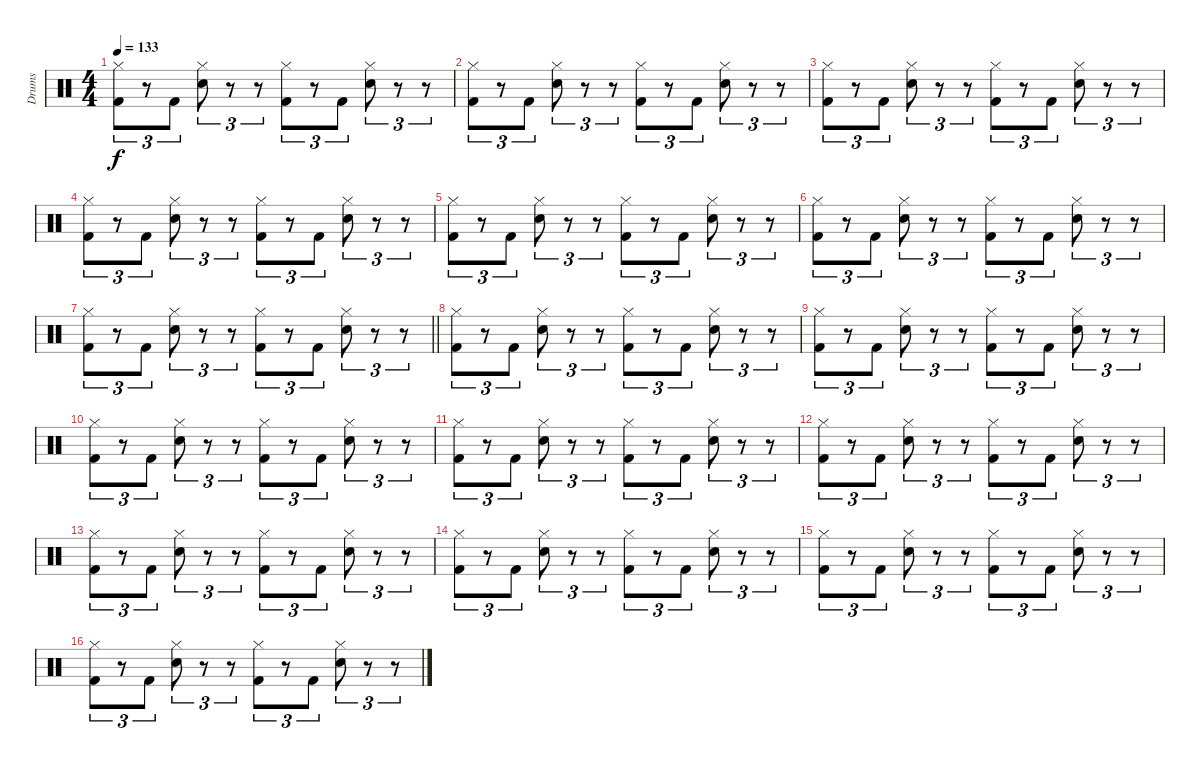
\track ("Drums" "Drums") {instrument percussion}
\staff {score}
\articulation defaults
\ts (4 4)
\tempo 133
\clef neutral
\ks c
("Hi-Hat (closed)" "Kick (hit) 2").8{tu (3 2) dy f} r.8{tu (3 2)} "Kick (hit) 2".8{tu (3 2)} ("Hi-Hat (closed)" "Snare (hit) 2").8{tu (3 2)} r.8{tu (3 2)} r.8{tu (3 2)} ("Hi-Hat (closed)" "Kick (hit) 2").8{tu (3 2)} r.8{tu (3 2)} "Kick (hit) 2".8{tu (3 2)} ("Hi-Hat (closed)" "Snare (hit) 2").8{tu (3 2)} r.8{tu (3 2)} r.8{tu (3 2)} |
("Hi-Hat (closed)" "Kick (hit) 2").8{tu (3 2)} r.8{tu (3 2)} "Kick (hit) 2".8{tu (3 2)} ("Hi-Hat (closed)" "Snare (hit) 2").8{tu (3 2)} r.8{tu (3 2)} r.8{tu (3 2)} ("Hi-Hat (closed)" "Kick (hit) 2").8{tu (3 2)} r.8{tu (3 2)} "Kick (hit) 2".8{tu (3 2)} ("Hi-Hat (closed)" "Snare (hit) 2").8{tu (3 2)} r.8{tu (3 2)} r.8{tu (3 2)} |
("Hi-Hat (closed)" "Kick (hit) 2").8{tu (3 2)} r.8{tu (3 2)} "Kick (hit) 2".8{tu (3 2)} ("Hi-Hat (closed)" "Snare (hit) 2").8{tu (3 2)} r.8{tu (3 2)} r.8{tu (3 2)} ("Hi-Hat (closed)" "Kick (hit) 2").8{tu (3 2)} r.8{tu (3 2)} "Kick (hit) 2".8{tu (3 2)} ("Hi-Hat (closed)" "Snare (hit) 2").8{tu (3 2)} r.8{tu (3 2)} r.8{tu (3 2)} |
("Hi-Hat (closed)" "Kick (hit) 2").8{tu (3 2)} r.8{tu (3 2)} "Kick (hit) 2".8{tu (3 2)} ("Hi-Hat (closed)" "Snare (hit) 2").8{tu (3 2)} r.8{tu (3 2)} r.8{tu (3 2)} ("Hi-Hat (closed)" "Kick (hit) 2").8{tu (3 2)} r.8{tu (3 2)} "Kick (hit) 2".8{tu (3 2)} ("Hi-Hat (closed)" "Snare (hit) 2").8{tu (3 2)} r.8{tu (3 2)} r.8{tu (3 2)} |
("Hi-Hat (closed)" "Kick (hit) 2").8{tu (3 2)} r.8{tu (3 2)} "Kick (hit) 2".8{tu (3 2)} ("Hi-Hat (closed)" "Snare (hit) 2").8{tu (3 2)} r.8{tu (3 2)} r.8{tu (3 2)} ("Hi-Hat (closed)" "Kick (hit) 2").8{tu (3 2)} r.8{tu (3 2)} "Kick (hit) 2".8{tu (3 2)} ("Hi-Hat (closed)" "Snare (hit) 2").8{tu (3 2)} r.8{tu (3 2)} r.8{tu (3 2)} |
("Hi-Hat (closed)" "Kick (hit) 2").8{tu (3 2)} r.8{tu (3 2)} "Kick (hit) 2".8{tu (3 2)} ("Hi-Hat (closed)" "Snare (hit) 2").8{tu (3 2)} r.8{tu (3 2)} r.8{tu (3 2)} ("Hi-Hat (closed)" "Kick (hit) 2").8{tu (3 2)} r.8{tu (3 2)} "Kick (hit) 2".8{tu (3 2)} ("Hi-Hat (closed)" "Snare (hit) 2").8{tu (3 2)} r.8{tu (3 2)} r.8{tu (3 2)} |
\barLineRight lightlight
("Hi-Hat (closed)" "Kick (hit) 2").8{tu (3 2)} r.8{tu (3 2)} "Kick (hit) 2".8{tu (3 2)} ("Hi-Hat (closed)" "Snare (hit) 2").8{tu (3 2)} r.8{tu (3 2)} r.8{tu (3 2)} ("Hi-Hat (closed)" "Kick (hit) 2").8{tu (3 2)} r.8{tu (3 2)} "Kick (hit) 2".8{tu (3 2)} ("Hi-Hat (closed)" "Snare (hit) 2").8{tu (3 2)} r.8{tu (3 2)} r.8{tu (3 2)} |
("Hi-Hat (closed)" "Kick (hit) 2").8{tu (3 2)} r.8{tu (3 2)} "Kick (hit) 2".8{tu (3 2)} ("Hi-Hat (closed)" "Snare (hit) 2").8{tu (3 2)} r.8{tu (3 2)} r.8{tu (3 2)} ("Hi-Hat (closed)" "Kick (hit) 2").8{tu (3 2)} r.8{tu (3 2)} "Kick (hit) 2".8{tu (3 2)} ("Hi-Hat (closed)" "Snare (hit) 2").8{tu (3 2)} r.8{tu (3 2)} r.8{tu (3 2)} |
("Hi-Hat (closed)" "Kick (hit) 2").8{tu (3 2)} r.8{tu (3 2)} "Kick (hit) 2".8{tu (3 2)} ("Hi-Hat (closed)" "Snare (hit) 2").8{tu (3 2)} r.8{tu (3 2)} r.8{tu (3 2)} ("Hi-Hat (closed)" "Kick (hit) 2").8{tu (3 2)} r.8{tu (3 2)} "Kick (hit) 2".8{tu (3 2)} ("Hi-Hat (closed)" "Snare (hit) 2").8{tu (3 2)} r.8{tu (3 2)} r.8{tu (3 2)} |
("Hi-Hat (closed)" "Kick (hit) 2").8{tu (3 2)} r.8{tu (3 2)} "Kick (hit) 2".8{tu (3 2)} ("Hi-Hat (closed)" "Snare (hit) 2").8{tu (3 2)} r.8{tu (3 2)} r.8{tu (3 2)} ("Hi-Hat (closed)" "Kick (hit) 2").8{tu (3 2)} r.8{tu (3 2)} "Kick (hit) 2".8{tu (3 2)} ("Hi-Hat (closed)" "Snare (hit) 2").8{tu (3 2)} r.8{tu (3 2)} r.8{tu (3 2)} |
("Hi-Hat (closed)" "Kick (hit) 2").8{tu (3 2)} r.8{tu (3 2)} "Kick (hit) 2".8{tu (3 2)} ("Hi-Hat (closed)" "Snare (hit) 2").8{tu (3 2)} r.8{tu (3 2)} r.8{tu (3 2)} ("Hi-Hat (closed)" "Kick (hit) 2").8{tu (3 2)} r.8{tu (3 2)} "Kick (hit) 2".8{tu (3 2)} ("Hi-Hat (closed)" "Snare (hit) 2").8{tu (3 2)} r.8{tu (3 2)} r.8{tu (3 2)} |
("Hi-Hat (closed)" "Kick (hit) 2").8{tu (3 2)} r.8{tu (3 2)} "Kick (hit) 2".8{tu (3 2)} ("Hi-Hat (closed)" "Snare (hit) 2").8{tu (3 2)} r.8{tu (3 2)} r.8{tu (3 2)} ("Hi-Hat (closed)" "Kick (hit) 2").8{tu (3 2)} r.8{tu (3 2)} "Kick (hit) 2".8{tu (3 2)} ("Hi-Hat (closed)" "Snare (hit) 2").8{tu (3 2)} r.8{tu (3 2)} r.8{tu (3 2)} |
("Hi-Hat (closed)" "Kick (hit) 2").8{tu (3 2)} r.8{tu (3 2)} "Kick (hit) 2".8{tu (3 2)} ("Hi-Hat (closed)" "Snare (hit) 2").8{tu (3 2)} r.8{tu (3 2)} r.8{tu (3 2)} ("Hi-Hat (closed)" "Kick (hit) 2").8{tu (3 2)} r.8{tu (3 2)} "Kick (hit) 2".8{tu (3 2)} ("Hi-Hat (closed)" "Snare (hit) 2").8{tu (3 2)} r.8{tu (3 2)} r.8{tu (3 2)} |
("Hi-Hat (closed)" "Kick (hit) 2").8{tu (3 2)} r.8{tu (3 2)} "Kick (hit) 2".8{tu (3 2)} ("Hi-Hat (closed)" "Snare (hit) 2").8{tu (3 2)} r.8{tu (3 2)} r.8{tu (3 2)} ("Hi-Hat (closed)" "Kick (hit) 2").8{tu (3 2)} r.8{tu (3 2)} "Kick (hit) 2".8{tu (3 2)} ("Hi-Hat (closed)" "Snare (hit) 2").8{tu (3 2)} r.8{tu (3 2)} r.8{tu (3 2)} |
("Hi-Hat (closed)" "Kick (hit) 2").8{tu (3 2)} r.8{tu (3 2)} "Kick (hit) 2".8{tu (3 2)} ("Hi-Hat (closed)" "Snare (hit) 2").8{tu (3 2)} r.8{tu (3 2)} r.8{tu (3 2)} ("Hi-Hat (closed)" "Kick (hit) 2").8{tu (3 2)} r.8{tu (3 2)} "Kick (hit) 2".8{tu (3 2)} ("Hi-Hat (closed)" "Snare (hit) 2").8{tu (3 2)} r.8{tu (3 2)} r.8{tu (3 2)} |
("Hi-Hat (closed)" "Kick (hit) 2").8{tu (3 2)} r.8{tu (3 2)} "Kick (hit) 2".8{tu (3 2)} ("Hi-Hat (closed)" "Snare (hit) 2").8{tu (3 2)} r.8{tu (3 2)} r.8{tu (3 2)} ("Hi-Hat (closed)" "Kick (hit) 2").8{tu (3 2)} r.8{tu (3 2)} "Kick (hit) 2".8{tu (3 2)} ("Hi-Hat (closed)" "Snare (hit) 2").8{tu (3 2)} r.8{tu (3 2)} r.8{tu (3 2)}
